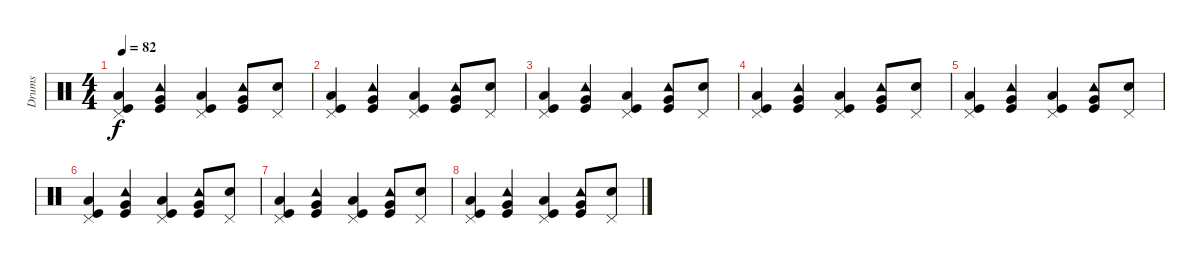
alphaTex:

\track ("Drums" "Drums") {instrument percussion}
\staff {score}
\articulation defaults
\ts (4 4)
\tempo 82
\clef neutral
\ks c
("Pedal Hi-Hat (hit)" "Low Tom (hit)" "Kick (hit)").4{dy f} ("Tambourine (hit)" "Very Low Tom (hit)" "Kick (hit)").4 ("Pedal Hi-Hat (hit)" "Low Tom (hit)" "Kick (hit)").4 ("Tambourine (hit)" "Very Low Tom (hit)" "Kick (hit)").8 ("Pedal Hi-Hat (hit)" "Electric Snare (hit)").8 |
("Pedal Hi-Hat (hit)" "Low Tom (hit)" "Kick (hit)").4 ("Tambourine (hit)" "Very Low Tom (hit)" "Kick (hit)").4 ("Pedal Hi-Hat (hit)" "Low Tom (hit)" "Kick (hit)").4 ("Tambourine (hit)" "Very Low Tom (hit)" "Kick (hit)").8 ("Pedal Hi-Hat (hit)" "Electric Snare (hit)").8 |
("Pedal Hi-Hat (hit)" "Low Tom (hit)" "Kick (hit)").4 ("Tambourine (hit)" "Very Low Tom (hit)" "Kick (hit)").4 ("Pedal Hi-Hat (hit)" "Low Tom (hit)" "Kick (hit)").4 ("Tambourine (hit)" "Very Low Tom (hit)" "Kick (hit)").8 ("Pedal Hi-Hat (hit)" "Electric Snare (hit)").8 |
("Pedal Hi-Hat (hit)" "Low Tom (hit)" "Kick (hit)").4 ("Tambourine (hit)" "Very Low Tom (hit)" "Kick (hit)").4 ("Pedal Hi-Hat (hit)" "Low Tom (hit)" "Kick (hit)").4 ("Tambourine (hit)" "Very Low Tom (hit)" "Kick (hit)").8 ("Pedal Hi-Hat (hit)" "Electric Snare (hit)").8 |
("Pedal Hi-Hat (hit)" "Low Tom (hit)" "Kick (hit)").4 ("Tambourine (hit)" "Very Low Tom (hit)" "Kick (hit)").4 ("Pedal Hi-Hat (hit)" "Low Tom (hit)" "Kick (hit)").4 ("Tambourine (hit)" "Very Low Tom (hit)" "Kick (hit)").8 ("Pedal Hi-Hat (hit)" "Electric Snare (hit)").8 |
("Pedal Hi-Hat (hit)" "Low Tom (hit)" "Kick (hit)").4 ("Tambourine (hit)" "Very Low Tom (hit)" "Kick (hit)").4 ("Pedal Hi-Hat (hit)" "Low Tom (hit)" "Kick (hit)").4 ("Tambourine (hit)" "Very Low Tom (hit)" "Kick (hit)").8 ("Pedal Hi-Hat (hit)" "Electric Snare (hit)").8 |
("Pedal Hi-Hat (hit)" "Low Tom (hit)" "Kick (hit)").4 ("Tambourine (hit)" "Very Low Tom (hit)" "Kick (hit)").4 ("Pedal Hi-Hat (hit)" "Low Tom (hit)" "Kick (hit)").4 ("Tambourine (hit)" "Very Low Tom (hit)" "Kick (hit)").8 ("Pedal Hi-Hat (hit)" "Electric Snare (hit)").8 |
("Pedal Hi-Hat (hit)" "Low Tom (hit)" "Kick (hit)").4 ("Tambourine (hit)" "Very Low Tom (hit)" "Kick (hit)").4 ("Pedal Hi-Hat (hit)" "Low Tom (hit)" "Kick (hit)").4 ("Tambourine (hit)" "Very Low Tom (hit)" "Kick (hit)").8 ("Pedal Hi-Hat (hit)" "Electric Snare (hit)").8
